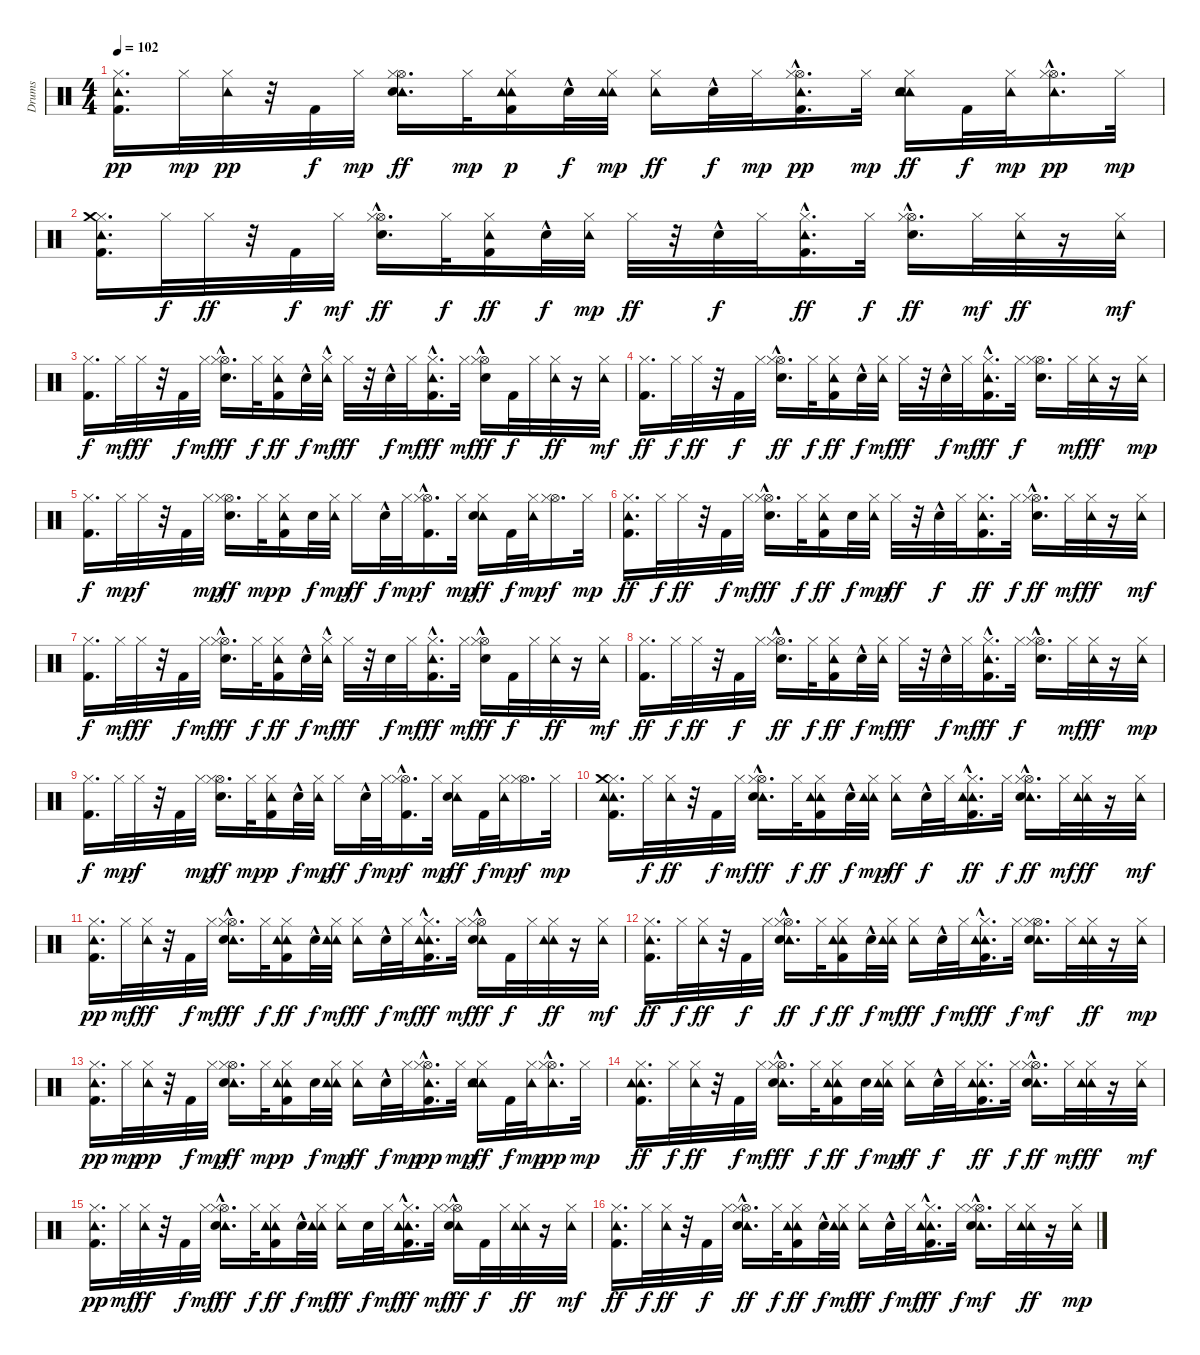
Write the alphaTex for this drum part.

\track ("Drums" "Drums") {instrument percussion}
\staff {score}
\articulation defaults
\ts (4 4)
\tempo 102
\clef neutral
\ks c
("Tambourine (hit)" "Kick (hit) 2" "Hi-Hat (closed)").16{d dy pp} "Hi-Hat (closed)".32{dy mp} ("Tambourine (hit)" "Hi-Hat (closed)").32{dy pp} r.32 "Kick (hit) 2".32{dy f} "Hi-Hat (closed)".32{dy mp} ("Tambourine (hit)" "Hi-Hat (open)" "Hi-Hat (closed)" "Electric Snare (hit)").16{d dy ff} "Hi-Hat (closed)".32{dy mp} ("Tambourine (hit)" "Kick (hit) 2" "Tambourine (hit)" "Hi-Hat (closed)").16{dy p} "Snare (hit) 2"{hac}.32{dy f} ("Tambourine (hit)" "Tambourine (hit)" "Hi-Hat (closed)").32{dy mp} ("Tambourine (hit)" "Hi-Hat (closed)").16{dy ff} "Snare (hit) 2"{hac}.32{dy f} "Hi-Hat (closed)".32{dy mp} ("Tambourine (hit)"{hac} "Kick (hit) 2"{hac} "Hi-Hat (open)"{hac} "Hi-Hat (closed)").16{d dy pp} "Hi-Hat (closed)".32{dy mp} ("Tambourine (hit)" "Tambourine (hit)" "Hi-Hat (closed)" "Electric Snare (hit)").16{dy ff} "Kick (hit) 2".32{dy f} ("Tambourine (hit)" "Hi-Hat (closed)").32{dy mp} ("Tambourine (hit)"{hac} "Hi-Hat (open)" "Hi-Hat (closed)").16{d dy pp} "Hi-Hat (closed)".32{dy mp} |
("Kick (hit) 2" "Tambourine (hit)" "Hi-Hat (closed)" "Crash medium (hit)").16{d} "Hi-Hat (closed)".32{dy f} "Hi-Hat (closed)".32{dy ff} r.32 "Kick (hit) 2".32{dy f} "Hi-Hat (closed)".32{dy mf} ("Hi-Hat (open)"{hac} "Hi-Hat (closed)" "Electric Snare (hit)").16{d dy ff} "Hi-Hat (closed)".32{dy f} ("Kick (hit) 2" "Tambourine (hit)" "Hi-Hat (closed)").16{dy ff} "Snare (hit) 2"{hac}.32{dy f} ("Tambourine (hit)" "Hi-Hat (closed)").32{dy mp} "Hi-Hat (closed)".32{dy ff} r.32 "Snare (hit) 2"{hac}.32{dy f} "Hi-Hat (closed)".32 ("Kick (hit) 2"{hac} "Tambourine (hit)" "Hi-Hat (closed)").16{d dy ff} "Hi-Hat (closed)".32{dy f} ("Hi-Hat (open)"{hac} "Hi-Hat (closed)" "Electric Snare (hit)"{hac}).16{d dy ff} "Hi-Hat (closed)".32{dy mf} ("Tambourine (hit)" "Hi-Hat (closed)").32{dy ff} r.16 ("Tambourine (hit)" "Hi-Hat (closed)").32{dy mf} |
("Kick (hit) 2" "Hi-Hat (closed)").16{d dy f} "Hi-Hat (closed)".32{dy mf} "Hi-Hat (closed)".32{dy ff} r.32 "Kick (hit) 2".32{dy f} "Hi-Hat (closed)".32{dy mf} ("Hi-Hat (open)"{hac} "Hi-Hat (closed)" "Electric Snare (hit)").16{d dy ff} "Hi-Hat (closed)".32{dy f} ("Kick (hit) 2" "Tambourine (hit)" "Hi-Hat (closed)").16{dy ff} "Snare (hit) 2"{hac}.32{dy f} ("Tambourine (hit)"{hac} "Hi-Hat (closed)").32{dy mf} "Hi-Hat (closed)".32{dy ff} r.32 "Snare (hit) 2"{hac}.32{dy f} "Hi-Hat (closed)".32{dy mf} ("Kick (hit) 2"{hac} "Tambourine (hit)" "Hi-Hat (closed)").16{d dy ff} "Hi-Hat (closed)".32{dy mf} ("Hi-Hat (open)"{hac} "Hi-Hat (closed)" "Electric Snare (hit)").16{dy ff} "Kick (hit) 2".32{dy f} "Hi-Hat (closed)".32 ("Tambourine (hit)" "Hi-Hat (closed)").32{dy ff} r.16 ("Tambourine (hit)" "Hi-Hat (closed)").32{dy mf} |
("Kick (hit) 2" "Hi-Hat (closed)").16{d dy ff} "Hi-Hat (closed)".32{dy f} "Hi-Hat (closed)".32{dy ff} r.32 "Kick (hit) 2".32{dy f} "Hi-Hat (closed)".32 ("Hi-Hat (open)"{hac} "Hi-Hat (closed)" "Electric Snare (hit)").16{d dy ff} "Hi-Hat (closed)".32{dy f} ("Kick (hit) 2" "Tambourine (hit)" "Hi-Hat (closed)").16{dy ff} "Snare (hit) 2"{hac}.32{dy f} ("Tambourine (hit)" "Hi-Hat (closed)").32{dy mf} "Hi-Hat (closed)".32{dy ff} r.32 "Snare (hit) 2"{hac}.32{dy f} "Hi-Hat (closed)".32{dy mf} ("Kick (hit) 2"{hac} "Tambourine (hit)" "Hi-Hat (closed)").16{d dy ff} "Hi-Hat (closed)".32{dy f} ("Hi-Hat (open)" "Hi-Hat (closed)" "Electric Snare (hit)").16{d} "Hi-Hat (closed)".32{dy mf} ("Tambourine (hit)" "Hi-Hat (closed)").32{dy ff} r.16 ("Tambourine (hit)" "Hi-Hat (closed)").32{dy mp} |
("Kick (hit) 2" "Hi-Hat (closed)").16{d dy f} "Hi-Hat (closed)".32{dy mp} "Hi-Hat (closed)".32{dy f} r.32 "Kick (hit) 2".32 "Hi-Hat (closed)".32{dy mp} ("Hi-Hat (open)" "Hi-Hat (closed)" "Electric Snare (hit)").16{d dy ff} "Hi-Hat (closed)".32{dy mp} ("Kick (hit) 2" "Tambourine (hit)" "Hi-Hat (closed)").16{dy p} "Snare (hit) 2".32{dy f} ("Tambourine (hit)" "Hi-Hat (closed)").32{dy mp} "Hi-Hat (closed)".16{dy ff} "Snare (hit) 2"{hac}.32{dy f} "Hi-Hat (closed)".32{dy mp} ("Kick (hit) 2"{hac} "Hi-Hat (open)"{hac} "Hi-Hat (closed)").16{d dy f} "Hi-Hat (closed)".32{dy mp} ("Tambourine (hit)" "Hi-Hat (closed)" "Electric Snare (hit)").16{dy ff} "Kick (hit) 2".32{dy f} ("Tambourine (hit)" "Hi-Hat (closed)").32{dy mp} ("Hi-Hat (open)" "Hi-Hat (closed)").16{d dy f} "Hi-Hat (closed)".32{dy mp} |
("Kick (hit) 2" "Tambourine (hit)" "Hi-Hat (closed)").16{d dy ff} "Hi-Hat (closed)".32{dy f} "Hi-Hat (closed)".32{dy ff} r.32 "Kick (hit) 2".32{dy f} "Hi-Hat (closed)".32{dy mf} ("Hi-Hat (open)"{hac} "Electric Snare (hit)" "Hi-Hat (closed)").16{d dy ff} "Hi-Hat (closed)".32{dy f} ("Kick (hit) 2" "Tambourine (hit)" "Hi-Hat (closed)").16{dy ff} "Snare (hit) 2".32{dy f} ("Tambourine (hit)" "Hi-Hat (closed)").32{dy mp} "Hi-Hat (closed)".32{dy ff} r.32 "Snare (hit) 2"{hac}.32{dy f} "Hi-Hat (closed)".32 ("Kick (hit) 2" "Tambourine (hit)" "Hi-Hat (closed)").16{d dy ff} "Hi-Hat (closed)".32{dy f} ("Hi-Hat (open)"{hac} "Electric Snare (hit)"{hac} "Hi-Hat (closed)").16{d dy ff} "Hi-Hat (closed)".32{dy mf} ("Tambourine (hit)" "Hi-Hat (closed)").32{dy ff} r.16 ("Tambourine (hit)" "Hi-Hat (closed)").32{dy mf} |
("Kick (hit) 2" "Hi-Hat (closed)").16{d dy f} "Hi-Hat (closed)".32{dy mf} "Hi-Hat (closed)".32{dy ff} r.32 "Kick (hit) 2".32{dy f} "Hi-Hat (closed)".32{dy mf} ("Hi-Hat (open)"{hac} "Electric Snare (hit)" "Hi-Hat (closed)").16{d dy ff} "Hi-Hat (closed)".32{dy f} ("Kick (hit) 2" "Tambourine (hit)" "Hi-Hat (closed)").16{dy ff} "Snare (hit) 2"{hac}.32{dy f} ("Tambourine (hit)"{hac} "Hi-Hat (closed)").32{dy mf} "Hi-Hat (closed)".32{dy ff} r.32 "Snare (hit) 2".32{dy f} "Hi-Hat (closed)".32{dy mf} ("Kick (hit) 2"{hac} "Tambourine (hit)" "Hi-Hat (closed)").16{d dy ff} "Hi-Hat (closed)".32{dy mf} ("Hi-Hat (open)"{hac} "Electric Snare (hit)" "Hi-Hat (closed)").16{dy ff} "Kick (hit) 2".32{dy f} "Hi-Hat (closed)".32 ("Tambourine (hit)" "Hi-Hat (closed)").32{dy ff} r.16 ("Tambourine (hit)" "Hi-Hat (closed)").32{dy mf} |
("Kick (hit) 2" "Hi-Hat (closed)").16{d dy ff} "Hi-Hat (closed)".32{dy f} "Hi-Hat (closed)".32{dy ff} r.32 "Kick (hit) 2".32{dy f} "Hi-Hat (closed)".32 ("Hi-Hat (open)"{hac} "Electric Snare (hit)" "Hi-Hat (closed)").16{d dy ff} "Hi-Hat (closed)".32{dy f} ("Kick (hit) 2" "Tambourine (hit)" "Hi-Hat (closed)").16{dy ff} "Snare (hit) 2"{hac}.32{dy f} ("Tambourine (hit)" "Hi-Hat (closed)").32{dy mf} "Hi-Hat (closed)".32{dy ff} r.32 "Snare (hit) 2"{hac}.32{dy f} "Hi-Hat (closed)".32{dy mf} ("Kick (hit) 2"{hac} "Tambourine (hit)" "Hi-Hat (closed)").16{d dy ff} "Hi-Hat (closed)".32{dy f} ("Hi-Hat (open)" "Electric Snare (hit)"{hac} "Hi-Hat (closed)").16{d} "Hi-Hat (closed)".32{dy mf} ("Tambourine (hit)" "Hi-Hat (closed)").32{dy ff} r.16 ("Tambourine (hit)" "Hi-Hat (closed)").32{dy mp} |
("Kick (hit) 2" "Hi-Hat (closed)").16{d dy f} "Hi-Hat (closed)".32{dy mp} "Hi-Hat (closed)".32{dy f} r.32 "Kick (hit) 2".32 "Hi-Hat (closed)".32{dy mp} ("Hi-Hat (open)" "Electric Snare (hit)" "Hi-Hat (closed)").16{d dy ff} "Hi-Hat (closed)".32{dy mp} ("Kick (hit) 2" "Tambourine (hit)" "Hi-Hat (closed)").16{dy p} "Snare (hit) 2"{hac}.32{dy f} ("Tambourine (hit)" "Hi-Hat (closed)").32{dy mp} "Hi-Hat (closed)".16{dy ff} "Snare (hit) 2"{hac}.32{dy f} "Hi-Hat (closed)".32{dy mp} ("Kick (hit) 2"{hac} "Hi-Hat (open)"{hac} "Hi-Hat (closed)").16{d dy f} "Hi-Hat (closed)".32{dy mp} ("Tambourine (hit)" "Electric Snare (hit)" "Hi-Hat (closed)").16{dy ff} "Kick (hit) 2".32{dy f} ("Tambourine (hit)" "Hi-Hat (closed)").32{dy mp} ("Hi-Hat (open)" "Hi-Hat (closed)").16{d dy f} "Hi-Hat (closed)".32{dy mp} |
("Tambourine (hit)" "Kick (hit) 2" "Tambourine (hit)" "Hi-Hat (closed)" "Crash medium (hit)").16{d} "Hi-Hat (closed)".32{dy f} ("Tambourine (hit)" "Hi-Hat (closed)").32{dy ff} r.32 "Kick (hit) 2".32{dy f} "Hi-Hat (closed)".32{dy mf} ("Tambourine (hit)" "Hi-Hat (open)"{hac} "Hi-Hat (closed)" "Electric Snare (hit)").16{d dy ff} "Hi-Hat (closed)".32{dy f} ("Tambourine (hit)" "Kick (hit) 2" "Tambourine (hit)" "Hi-Hat (closed)").16{dy ff} "Snare (hit) 2"{hac}.32{dy f} ("Tambourine (hit)" "Tambourine (hit)" "Hi-Hat (closed)").32{dy mp} ("Tambourine (hit)" "Hi-Hat (closed)").16{dy ff} "Snare (hit) 2"{hac}.32{dy f} "Hi-Hat (closed)".32 ("Tambourine (hit)" "Kick (hit) 2"{hac} "Tambourine (hit)" "Hi-Hat (closed)").16{d dy ff} "Hi-Hat (closed)".32{dy f} ("Tambourine (hit)" "Hi-Hat (open)"{hac} "Hi-Hat (closed)" "Electric Snare (hit)"{hac}).16{d dy ff} "Hi-Hat (closed)".32{dy mf} ("Tambourine (hit)" "Tambourine (hit)" "Hi-Hat (closed)").32{dy ff} r.16 ("Tambourine (hit)" "Hi-Hat (closed)").32{dy mf} |
("Tambourine (hit)" "Kick (hit) 2" "Hi-Hat (closed)").16{d dy pp} "Hi-Hat (closed)".32{dy mf} ("Tambourine (hit)" "Hi-Hat (closed)").32{dy ff} r.32 "Kick (hit) 2".32{dy f} "Hi-Hat (closed)".32{dy mf} ("Tambourine (hit)" "Hi-Hat (open)"{hac} "Hi-Hat (closed)" "Electric Snare (hit)").16{d dy ff} "Hi-Hat (closed)".32{dy f} ("Tambourine (hit)" "Kick (hit) 2" "Tambourine (hit)" "Hi-Hat (closed)").16{dy ff} "Snare (hit) 2"{hac}.32{dy f} ("Tambourine (hit)" "Tambourine (hit)" "Hi-Hat (closed)").32{dy mf} ("Tambourine (hit)" "Hi-Hat (closed)").16{dy ff} "Snare (hit) 2"{hac}.32{dy f} "Hi-Hat (closed)".32{dy mf} ("Tambourine (hit)" "Kick (hit) 2"{hac} "Tambourine (hit)" "Hi-Hat (closed)").16{d dy ff} "Hi-Hat (closed)".32{dy mf} ("Tambourine (hit)" "Hi-Hat (open)"{hac} "Hi-Hat (closed)" "Electric Snare (hit)").16{dy ff} "Kick (hit) 2".32{dy f} "Hi-Hat (closed)".32 ("Tambourine (hit)" "Tambourine (hit)" "Hi-Hat (closed)").32{dy ff} r.16 ("Tambourine (hit)" "Hi-Hat (closed)").32{dy mf} |
("Tambourine (hit)" "Kick (hit) 2" "Hi-Hat (closed)").16{d dy ff} "Hi-Hat (closed)".32{dy f} ("Tambourine (hit)" "Hi-Hat (closed)").32{dy ff} r.32 "Kick (hit) 2".32{dy f} "Hi-Hat (closed)".32 ("Tambourine (hit)" "Hi-Hat (open)"{hac} "Hi-Hat (closed)" "Electric Snare (hit)").16{d dy ff} "Hi-Hat (closed)".32{dy f} ("Tambourine (hit)" "Kick (hit) 2" "Tambourine (hit)" "Hi-Hat (closed)").16{dy ff} "Snare (hit) 2"{hac}.32{dy f} ("Tambourine (hit)" "Tambourine (hit)" "Hi-Hat (closed)").32{dy mf} ("Tambourine (hit)" "Hi-Hat (closed)").16{dy ff} "Snare (hit) 2"{hac}.32{dy f} "Hi-Hat (closed)".32{dy mf} ("Tambourine (hit)" "Kick (hit) 2"{hac} "Tambourine (hit)" "Hi-Hat (closed)").16{d dy ff} "Hi-Hat (closed)".32{dy f} ("Tambourine (hit)" "Hi-Hat (open)" "Hi-Hat (closed)" "Electric Snare (hit)").16{d dy mf} "Hi-Hat (closed)".32 ("Tambourine (hit)" "Tambourine (hit)" "Hi-Hat (closed)").32{dy ff} r.16 ("Tambourine (hit)" "Hi-Hat (closed)").32{dy mp} |
("Tambourine (hit)" "Kick (hit) 2" "Hi-Hat (closed)").16{d dy pp} "Hi-Hat (closed)".32{dy mp} ("Tambourine (hit)" "Hi-Hat (closed)").32{dy pp} r.32 "Kick (hit) 2".32{dy f} "Hi-Hat (closed)".32{dy mp} ("Tambourine (hit)" "Hi-Hat (open)" "Hi-Hat (closed)" "Electric Snare (hit)").16{d dy ff} "Hi-Hat (closed)".32{dy mp} ("Tambourine (hit)" "Kick (hit) 2" "Tambourine (hit)" "Hi-Hat (closed)").16{dy p} "Snare (hit) 2".32{dy f} ("Tambourine (hit)" "Tambourine (hit)" "Hi-Hat (closed)").32{dy mp} ("Tambourine (hit)" "Hi-Hat (closed)").16{dy ff} "Snare (hit) 2"{hac}.32{dy f} "Hi-Hat (closed)".32{dy mp} ("Tambourine (hit)"{hac} "Kick (hit) 2"{hac} "Hi-Hat (open)"{hac} "Hi-Hat (closed)").16{d dy pp} "Hi-Hat (closed)".32{dy mp} ("Tambourine (hit)" "Tambourine (hit)" "Hi-Hat (closed)" "Electric Snare (hit)").16{dy ff} "Kick (hit) 2".32{dy f} ("Tambourine (hit)" "Hi-Hat (closed)").32{dy mp} ("Tambourine (hit)"{hac} "Hi-Hat (open)" "Hi-Hat (closed)").16{d dy pp} "Hi-Hat (closed)".32{dy mp} |
("Tambourine (hit)" "Kick (hit) 2" "Tambourine (hit)" "Hi-Hat (closed)").16{d dy ff} "Hi-Hat (closed)".32{dy f} ("Tambourine (hit)" "Hi-Hat (closed)").32{dy ff} r.32 "Kick (hit) 2".32{dy f} "Hi-Hat (closed)".32{dy mf} ("Tambourine (hit)" "Hi-Hat (open)"{hac} "Hi-Hat (closed)" "Electric Snare (hit)").16{d dy ff} "Hi-Hat (closed)".32{dy f} ("Tambourine (hit)" "Kick (hit) 2" "Tambourine (hit)" "Hi-Hat (closed)").16{dy ff} "Snare (hit) 2".32{dy f} ("Tambourine (hit)" "Tambourine (hit)" "Hi-Hat (closed)").32{dy mp} ("Tambourine (hit)" "Hi-Hat (closed)").16{dy ff} "Snare (hit) 2"{hac}.32{dy f} "Hi-Hat (closed)".32 ("Tambourine (hit)" "Kick (hit) 2" "Tambourine (hit)" "Hi-Hat (closed)").16{d dy ff} "Hi-Hat (closed)".32{dy f} ("Tambourine (hit)" "Hi-Hat (open)"{hac} "Hi-Hat (closed)" "Electric Snare (hit)"{hac}).16{d dy ff} "Hi-Hat (closed)".32{dy mf} ("Tambourine (hit)" "Tambourine (hit)" "Hi-Hat (closed)").32{dy ff} r.16 ("Tambourine (hit)" "Hi-Hat (closed)").32{dy mf} |
("Tambourine (hit)" "Kick (hit) 2" "Hi-Hat (closed)").16{d dy pp} "Hi-Hat (closed)".32{dy mf} ("Tambourine (hit)" "Hi-Hat (closed)").32{dy ff} r.32 "Kick (hit) 2".32{dy f} "Hi-Hat (closed)".32{dy mf} ("Tambourine (hit)" "Hi-Hat (open)"{hac} "Hi-Hat (closed)" "Electric Snare (hit)").16{d dy ff} "Hi-Hat (closed)".32{dy f} ("Tambourine (hit)" "Kick (hit) 2" "Tambourine (hit)" "Hi-Hat (closed)").16{dy ff} "Snare (hit) 2"{hac}.32{dy f} ("Tambourine (hit)" "Tambourine (hit)" "Hi-Hat (closed)").32{dy mf} ("Tambourine (hit)" "Hi-Hat (closed)").16{dy ff} "Snare (hit) 2".32{dy f} "Hi-Hat (closed)".32{dy mf} ("Tambourine (hit)" "Kick (hit) 2"{hac} "Tambourine (hit)" "Hi-Hat (closed)").16{d dy ff} "Hi-Hat (closed)".32{dy mf} ("Tambourine (hit)" "Hi-Hat (open)"{hac} "Hi-Hat (closed)" "Electric Snare (hit)").16{dy ff} "Kick (hit) 2".32{dy f} "Hi-Hat (closed)".32 ("Tambourine (hit)" "Tambourine (hit)" "Hi-Hat (closed)").32{dy ff} r.16 ("Tambourine (hit)" "Hi-Hat (closed)").32{dy mf} |
("Tambourine (hit)" "Kick (hit) 2" "Hi-Hat (closed)").16{d dy ff} "Hi-Hat (closed)".32{dy f} ("Tambourine (hit)" "Hi-Hat (closed)").32{dy ff} r.32 "Kick (hit) 2".32{dy f} "Hi-Hat (closed)".32 ("Tambourine (hit)" "Hi-Hat (open)"{hac} "Hi-Hat (closed)" "Electric Snare (hit)").16{d dy ff} "Hi-Hat (closed)".32{dy f} ("Tambourine (hit)" "Kick (hit) 2" "Tambourine (hit)" "Hi-Hat (closed)").16{dy ff} "Snare (hit) 2"{hac}.32{dy f} ("Tambourine (hit)" "Tambourine (hit)" "Hi-Hat (closed)").32{dy mf} ("Tambourine (hit)" "Hi-Hat (closed)").16{dy ff} "Snare (hit) 2"{hac}.32{dy f} "Hi-Hat (closed)".32{dy mf} ("Tambourine (hit)" "Kick (hit) 2"{hac} "Tambourine (hit)" "Hi-Hat (closed)").16{d dy ff} "Hi-Hat (closed)".32{dy f} ("Tambourine (hit)" "Hi-Hat (open)" "Hi-Hat (closed)" "Electric Snare (hit)"{hac}).16{d dy mf} "Hi-Hat (closed)".32 ("Tambourine (hit)" "Tambourine (hit)" "Hi-Hat (closed)").32{dy ff} r.16 ("Tambourine (hit)" "Hi-Hat (closed)").32{dy mp}
